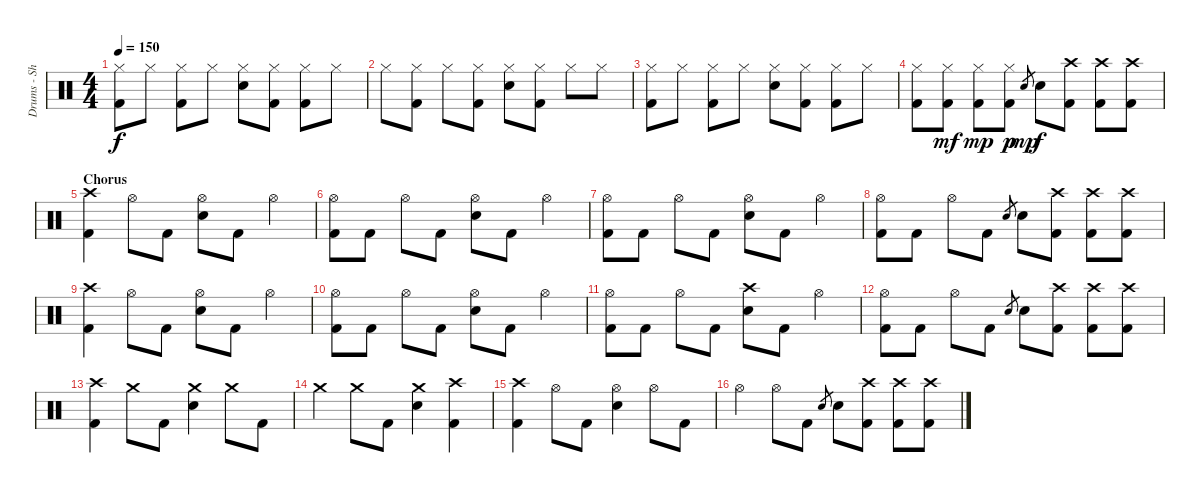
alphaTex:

\track ("Drums - Shelton" "Drums - Sh") {instrument percussion}
\staff {score}
\articulation defaults
\ts (4 4)
\tempo 150
\clef neutral
\ks c
("Hi-Hat (closed)" "Kick (hit) 2").8{dy f} "Hi-Hat (closed)".8 ("Hi-Hat (closed)" "Kick (hit) 2").8 "Hi-Hat (closed)".8 ("Hi-Hat (closed)" "Electric Snare (hit)").8 ("Hi-Hat (closed)" "Kick (hit) 2").8 ("Hi-Hat (closed)" "Kick (hit) 2").8 "Hi-Hat (closed)".8 |
"Hi-Hat (closed)".8 ("Hi-Hat (closed)" "Kick (hit) 2").8 "Hi-Hat (closed)".8 ("Hi-Hat (closed)" "Kick (hit) 2").8 ("Hi-Hat (closed)" "Electric Snare (hit)").8 ("Hi-Hat (closed)" "Kick (hit) 2").8 "Hi-Hat (closed)".8 "Hi-Hat (closed)".8 |
("Hi-Hat (closed)" "Kick (hit) 2").8 "Hi-Hat (closed)".8 ("Hi-Hat (closed)" "Kick (hit) 2").8 "Hi-Hat (closed)".8 ("Hi-Hat (closed)" "Electric Snare (hit)").8 ("Hi-Hat (closed)" "Kick (hit) 2").8 ("Hi-Hat (closed)" "Kick (hit) 2").8 "Hi-Hat (closed)".8 |
("Hi-Hat (closed)" "Kick (hit) 2").8 ("Hi-Hat (closed)" "Kick (hit) 2").8{dy mf} ("Hi-Hat (closed)" "Kick (hit) 2").8{dy mp} ("Hi-Hat (closed)" "Kick (hit) 2").8{dy p} "Electric Snare (hit)".8{gr dy mp} "Electric Snare (hit)".8{dy f} ("Crash high (hit)" "Kick (hit) 2").8 ("Crash high (hit)" "Kick (hit) 2").8 ("Crash high (hit)" "Kick (hit) 2").8 |
\section ("" "Chorus")
("Crash high (hit)" "Kick (hit) 2").4 "Hi-Hat (open)".8 "Kick (hit) 2".8 ("Hi-Hat (open)" "Electric Snare (hit)").8 "Kick (hit) 2".8 "Hi-Hat (open)".4 |
("Hi-Hat (open)" "Kick (hit) 2").8 "Kick (hit) 2".8 "Hi-Hat (open)".8 "Kick (hit) 2".8 ("Hi-Hat (open)" "Electric Snare (hit)").8 "Kick (hit) 2".8 "Hi-Hat (open)".4 |
("Hi-Hat (open)" "Kick (hit) 2").8 "Kick (hit) 2".8 "Hi-Hat (open)".8 "Kick (hit) 2".8 ("Hi-Hat (open)" "Electric Snare (hit)").8 "Kick (hit) 2".8 "Hi-Hat (open)".4 |
("Hi-Hat (open)" "Kick (hit) 2").8 "Kick (hit) 2".8 "Hi-Hat (open)".8 "Kick (hit) 2".8 "Electric Snare (hit)".8{gr} "Electric Snare (hit)".8 ("Crash high (hit)" "Kick (hit) 2").8 ("Crash high (hit)" "Kick (hit) 2").8 ("Crash high (hit)" "Kick (hit) 2").8 |
("Crash high (hit)" "Kick (hit) 2").4 "Hi-Hat (open)".8 "Kick (hit) 2".8 ("Hi-Hat (open)" "Electric Snare (hit)").8 "Kick (hit) 2".8 "Hi-Hat (open)".4 |
("Hi-Hat (open)" "Kick (hit) 2").8 "Kick (hit) 2".8 "Hi-Hat (open)".8 "Kick (hit) 2".8 ("Hi-Hat (open)" "Electric Snare (hit)").8 "Kick (hit) 2".8 "Hi-Hat (open)".4 |
("Hi-Hat (open)" "Kick (hit) 2").8 "Kick (hit) 2".8 "Hi-Hat (open)".8 "Kick (hit) 2".8 ("Crash high (hit)" "Electric Snare (hit)").8 "Kick (hit) 2".8 "Hi-Hat (open)".4 |
("Hi-Hat (open)" "Kick (hit) 2").8 "Kick (hit) 2".8 "Hi-Hat (open)".8 "Kick (hit) 2".8 "Electric Snare (hit)".8{gr} "Electric Snare (hit)".8 ("Crash high (hit)" "Kick (hit) 2").8 ("Crash high (hit)" "Kick (hit) 2").8 ("Crash high (hit)" "Kick (hit) 2").8 |
("Crash high (hit)" "Kick (hit) 2").4 "Crash medium (hit)".8 "Kick (hit) 2".8 ("Crash medium (hit)" "Electric Snare (hit)").4 "Crash medium (hit)".8 "Kick (hit) 2".8 |
"Crash medium (hit)".4 "Crash medium (hit)".8 "Kick (hit) 2".8 ("Crash medium (hit)" "Electric Snare (hit)").4 ("Crash high (hit)" "Kick (hit) 2").4 |
("Crash high (hit)" "Kick (hit) 2").4 "Hi-Hat (open)".8 "Kick (hit) 2".8 ("Hi-Hat (open)" "Electric Snare (hit)").4 "Hi-Hat (open)".8 "Kick (hit) 2".8 |
"Hi-Hat (open)".4 "Hi-Hat (open)".8 "Kick (hit) 2".8 "Electric Snare (hit)".8{gr} "Electric Snare (hit)".8 ("Crash high (hit)" "Kick (hit) 2").8 ("Crash high (hit)" "Kick (hit) 2").8 ("Crash high (hit)" "Kick (hit) 2").8
